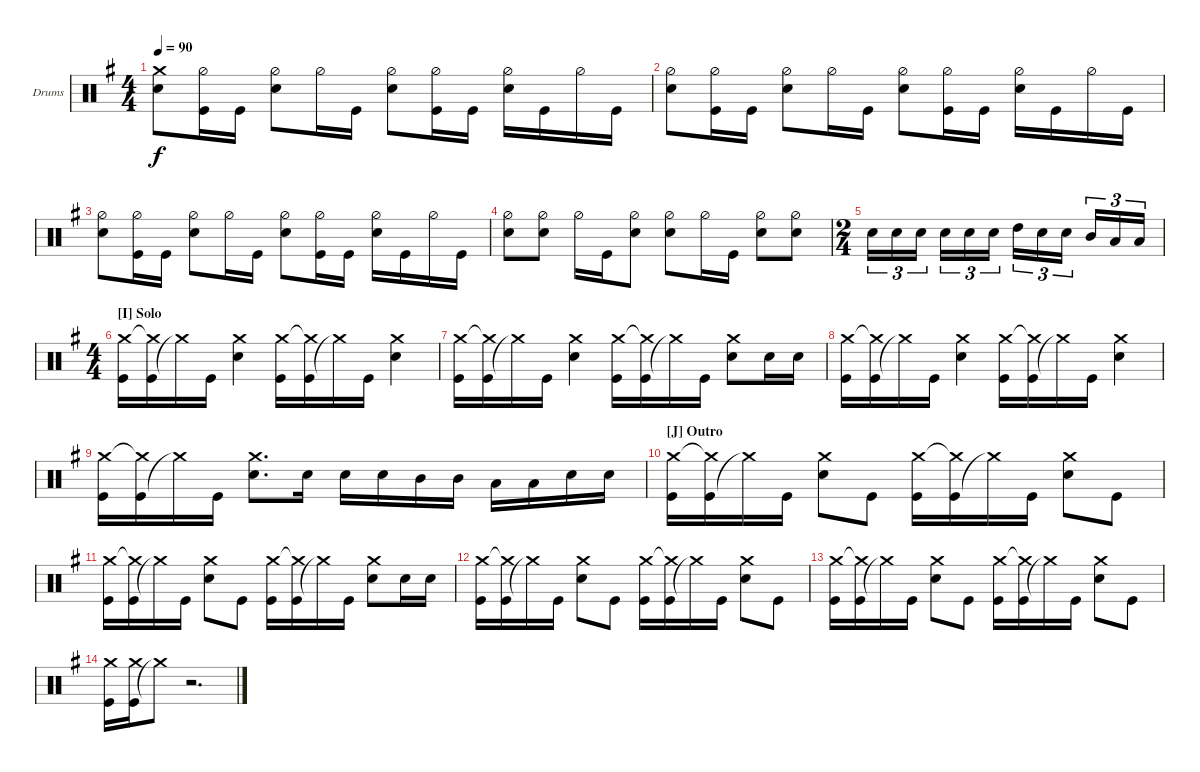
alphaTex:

\defaultSystemsLayout 4
\bracketExtendMode groupsimilarinstruments
\firstSystemTrackNameOrientation horizontal
\otherSystemsTrackNameOrientation horizontal
\track ("Matt Helders" "Drums") {multiBarRest instrument percussion}
\staff {score}
\articulation defaults
\ts (4 4)
\tempo 90
\clef neutral
\ks g
("Snare (hit) 2" "Crash medium (hit)").8{dy f} ("Kick (hit)" "Hi-Hat (half)").16 "Kick (hit)".16 ("Snare (hit) 2" "Hi-Hat (half)").8 "Hi-Hat (half)".16 "Kick (hit)".16 ("Snare (hit) 2" "Hi-Hat (half)").8 ("Kick (hit)" "Hi-Hat (half)").16 "Kick (hit)".16 ("Snare (hit) 2" "Hi-Hat (half)").16 "Kick (hit)".16 "Hi-Hat (half)".16 "Kick (hit)".16 |
("Snare (hit) 2" "Hi-Hat (half)").8 ("Kick (hit)" "Hi-Hat (half)").16 "Kick (hit)".16 ("Snare (hit) 2" "Hi-Hat (half)").8 "Hi-Hat (half)".16 "Kick (hit)".16 ("Snare (hit) 2" "Hi-Hat (half)").8 ("Kick (hit)" "Hi-Hat (half)").16 "Kick (hit)".16 ("Snare (hit) 2" "Hi-Hat (half)").16 "Kick (hit)".16 "Hi-Hat (half)".16 "Kick (hit)".16 |
("Snare (hit) 2" "Hi-Hat (half)").8 ("Kick (hit)" "Hi-Hat (half)").16 "Kick (hit)".16 ("Snare (hit) 2" "Hi-Hat (half)").8 "Hi-Hat (half)".16 "Kick (hit)".16 ("Snare (hit) 2" "Hi-Hat (half)").8 ("Kick (hit)" "Hi-Hat (half)").16 "Kick (hit)".16 ("Snare (hit) 2" "Hi-Hat (half)").16 "Kick (hit)".16 "Hi-Hat (half)".16 "Kick (hit)".16 |
("Snare (hit) 2" "Hi-Hat (half)").8 ("Snare (hit) 2" "Hi-Hat (half)").8 "Hi-Hat (half)".16 "Kick (hit)".16 ("Snare (hit) 2" "Hi-Hat (half)").8 ("Snare (hit) 2" "Hi-Hat (half)").8 "Hi-Hat (half)".16 "Kick (hit)".16 ("Snare (hit) 2" "Hi-Hat (half)").8 ("Snare (hit) 2" "Hi-Hat (half)").8 |
\ts (2 4)
"Snare (hit) 2".16{tu (3 2) beam merge} "Snare (hit) 2".16{tu (3 2) beam merge} "Snare (hit) 2".16{tu (3 2) beam splitsecondary} "Snare (hit) 2".16{tu (3 2) beam merge} "Snare (hit) 2".16{tu (3 2) beam merge} "Snare (hit) 2".16{tu (3 2)} "High Tom (hit)".16{tu (3 2)} "Snare (hit) 2".16{tu (3 2)} "Snare (hit) 2".16{tu (3 2) beam splitsecondary} "Mid Tom (hit)".16{tu (3 2)} "Low Tom (hit)".16{tu (3 2)} "Low Tom (hit)".16{tu (3 2)} |
\ts (4 4)
\section ("I" "Solo")
("Kick (hit)" "Crash medium (hit)").16 ("Kick (hit)" "Crash medium (hit)"{t}).16 "Crash medium (hit)"{t}.16 "Kick (hit)".16 ("Snare (hit) 2" "Crash medium (hit)").4 ("Kick (hit)" "Crash medium (hit)").16 ("Kick (hit)" "Crash medium (hit)"{t}).16 "Crash medium (hit)"{t}.16 "Kick (hit)".16 ("Snare (hit) 2" "Crash medium (hit)").4 |
("Kick (hit)" "Crash medium (hit)").16 ("Kick (hit)" "Crash medium (hit)"{t}).16 "Crash medium (hit)"{t}.16 "Kick (hit)".16 ("Snare (hit) 2" "Crash medium (hit)").4 ("Kick (hit)" "Crash medium (hit)").16 ("Kick (hit)" "Crash medium (hit)"{t}).16 "Crash medium (hit)"{t}.16 "Kick (hit)".16 ("Snare (hit) 2" "Crash medium (hit)").8 "Snare (hit) 2".16 "Snare (hit) 2".16 |
("Kick (hit)" "Crash medium (hit)").16 ("Kick (hit)" "Crash medium (hit)"{t}).16 "Crash medium (hit)"{t}.16 "Kick (hit)".16 ("Snare (hit) 2" "Crash medium (hit)").4 ("Kick (hit)" "Crash medium (hit)").16 ("Kick (hit)" "Crash medium (hit)"{t}).16 "Crash medium (hit)"{t}.16 "Kick (hit)".16 ("Snare (hit) 2" "Crash medium (hit)").4 |
("Kick (hit)" "Crash medium (hit)").16 ("Kick (hit)" "Crash medium (hit)"{t}).16 "Crash medium (hit)"{t}.16 "Kick (hit)".16 ("Snare (hit) 2" "Crash medium (hit)").8{d} "Snare (hit) 2".16 "Snare (hit) 2".16 "Snare (hit) 2".16 "Mid Tom (hit)".16 "Mid Tom (hit)".16 "Low Tom (hit)".16 "Low Tom (hit)".16 "Snare (hit) 2".16 "Snare (hit) 2".16 |
\section ("J" "Outro")
("Kick (hit)" "Crash medium (hit)").16 ("Kick (hit)" "Crash medium (hit)"{t}).16 "Crash medium (hit)"{t}.16 "Kick (hit)".16 ("Snare (hit) 2" "Crash medium (hit)").8 "Kick (hit)".8 ("Kick (hit)" "Crash medium (hit)").16 ("Kick (hit)" "Crash medium (hit)"{t}).16 "Crash medium (hit)"{t}.16 "Kick (hit)".16 ("Snare (hit) 2" "Crash medium (hit)").8 "Kick (hit)".8 |
("Kick (hit)" "Crash medium (hit)").16 ("Kick (hit)" "Crash medium (hit)"{t}).16 "Crash medium (hit)"{t}.16 "Kick (hit)".16 ("Snare (hit) 2" "Crash medium (hit)").8 "Kick (hit)".8 ("Kick (hit)" "Crash medium (hit)").16 ("Kick (hit)" "Crash medium (hit)"{t}).16 "Crash medium (hit)"{t}.16 "Kick (hit)".16 ("Snare (hit) 2" "Crash medium (hit)").8 "Snare (hit) 2".16 "Snare (hit) 2".16 |
("Kick (hit)" "Crash medium (hit)").16 ("Kick (hit)" "Crash medium (hit)"{t}).16 "Crash medium (hit)"{t}.16 "Kick (hit)".16 ("Snare (hit) 2" "Crash medium (hit)").8 "Kick (hit)".8 ("Kick (hit)" "Crash medium (hit)").16 ("Kick (hit)" "Crash medium (hit)"{t}).16 "Crash medium (hit)"{t}.16 "Kick (hit)".16 ("Snare (hit) 2" "Crash medium (hit)").8 "Kick (hit)".8 |
("Kick (hit)" "Crash medium (hit)").16 ("Kick (hit)" "Crash medium (hit)"{t}).16 "Crash medium (hit)"{t}.16 "Kick (hit)".16 ("Snare (hit) 2" "Crash medium (hit)").8 "Kick (hit)".8 ("Kick (hit)" "Crash medium (hit)").16 ("Kick (hit)" "Crash medium (hit)"{t}).16 "Crash medium (hit)"{t}.16 "Kick (hit)".16 ("Snare (hit) 2" "Crash medium (hit)").8 "Kick (hit)".8 |
("Kick (hit)" "Crash medium (hit)").16 ("Kick (hit)" "Crash medium (hit)").16 "Crash medium (hit)"{t}.8 r.2{d}
